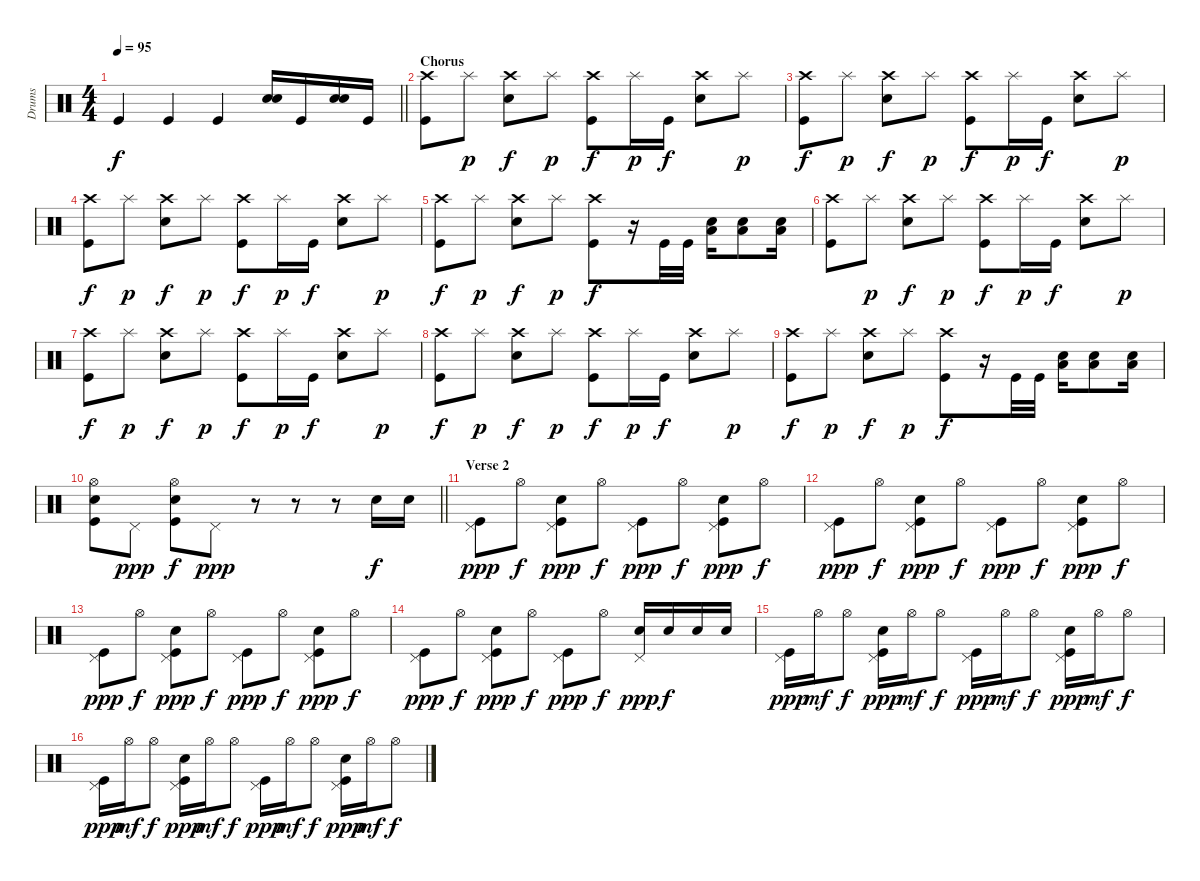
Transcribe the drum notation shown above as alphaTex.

\track ("Drums" "Drums") {instrument percussion}
\staff {score}
\articulation defaults
\ts (4 4)
\tempo 95
\clef neutral
\barLineRight lightlight
\ks c "Kick (hit)".4{dy f} "Kick (hit)".4 "Kick (hit)".4
("Snare (hit) 2" "Snare (hit) 2").16 "Kick (hit)".16 ("Snare (hit) 2" "Snare (hit) 2").16 "Kick (hit)".16 |
\section ("" "Chorus")
("Crash high (hit)" "Kick (hit)").8 "Splash (hit)".8{dy p} ("Crash high (hit)" "Snare (hit) 2").8{dy f} "Splash (hit)".8{dy p} ("Crash high (hit)" "Kick (hit)").8{dy f} "Splash (hit)".16{dy p} "Kick (hit)".16{dy f} ("Crash high (hit)" "Snare (hit) 2").8 "Splash (hit)".8{dy p} |
("Crash high (hit)" "Kick (hit)").8{dy f} "Splash (hit)".8{dy p} ("Crash high (hit)" "Snare (hit) 2").8{dy f} "Splash (hit)".8{dy p} ("Crash high (hit)" "Kick (hit)").8{dy f} "Splash (hit)".16{dy p} "Kick (hit)".16{dy f} ("Crash high (hit)" "Snare (hit) 2").8 "Splash (hit)".8{dy p} |
("Crash high (hit)" "Kick (hit)").8{dy f} "Splash (hit)".8{dy p} ("Crash high (hit)" "Snare (hit) 2").8{dy f} "Splash (hit)".8{dy p} ("Crash high (hit)" "Kick (hit)").8{dy f} "Splash (hit)".16{dy p} "Kick (hit)".16{dy f} ("Crash high (hit)" "Snare (hit) 2").8 "Splash (hit)".8{dy p} |
("Crash high (hit)" "Kick (hit)").8{dy f} "Splash (hit)".8{dy p} ("Crash high (hit)" "Snare (hit) 2").8{dy f} "Splash (hit)".8{dy p} ("Crash high (hit)" "Kick (hit)").8{dy f} r.16 "Kick (hit)".32 "Kick (hit)".32 ("Snare (hit) 2" "Low Floor Tom (hit)").16 ("Snare (hit) 2" "Low Floor Tom (hit)").8 ("Snare (hit) 2" "Low Floor Tom (hit)").16 |
("Crash high (hit)" "Kick (hit)").8 "Splash (hit)".8{dy p} ("Crash high (hit)" "Snare (hit) 2").8{dy f} "Splash (hit)".8{dy p} ("Crash high (hit)" "Kick (hit)").8{dy f} "Splash (hit)".16{dy p} "Kick (hit)".16{dy f} ("Crash high (hit)" "Snare (hit) 2").8 "Splash (hit)".8{dy p} |
("Crash high (hit)" "Kick (hit)").8{dy f} "Splash (hit)".8{dy p} ("Crash high (hit)" "Snare (hit) 2").8{dy f} "Splash (hit)".8{dy p} ("Crash high (hit)" "Kick (hit)").8{dy f} "Splash (hit)".16{dy p} "Kick (hit)".16{dy f} ("Crash high (hit)" "Snare (hit) 2").8 "Splash (hit)".8{dy p} |
("Crash high (hit)" "Kick (hit)").8{dy f} "Splash (hit)".8{dy p} ("Crash high (hit)" "Snare (hit) 2").8{dy f} "Splash (hit)".8{dy p} ("Crash high (hit)" "Kick (hit)").8{dy f} "Splash (hit)".16{dy p} "Kick (hit)".16{dy f} ("Crash high (hit)" "Snare (hit) 2").8 "Splash (hit)".8{dy p} |
("Crash high (hit)" "Kick (hit)").8{dy f} "Splash (hit)".8{dy p} ("Crash high (hit)" "Snare (hit) 2").8{dy f} "Splash (hit)".8{dy p} ("Crash high (hit)" "Kick (hit)").8{dy f} r.16 "Kick (hit)".32 "Kick (hit)".32 ("Snare (hit) 2" "Low Floor Tom (hit)").16 ("Snare (hit) 2" "Low Floor Tom (hit)").8 ("Snare (hit) 2" "Low Floor Tom (hit)").16 |
\barLineRight lightlight
("Hi-Hat (open)" "Snare (hit) 2" "Kick (hit)").8 "Pedal Hi-Hat (hit)".8{dy ppp} ("Hi-Hat (open)" "Snare (hit) 2" "Kick (hit)").8{dy f} "Pedal Hi-Hat (hit)".8{dy ppp} r.8 r.8 r.8 "Snare (hit) 2".16{dy f} "Snare (hit) 2".16 |
\section ("" "Verse 2")
("Pedal Hi-Hat (hit)" "Kick (hit)").8{dy ppp} "Hi-Hat (open)".8{dy f} ("Pedal Hi-Hat (hit)" "Snare (hit) 2" "Kick (hit)").8{dy ppp} "Hi-Hat (open)".8{dy f} ("Pedal Hi-Hat (hit)" "Kick (hit)").8{dy ppp} "Hi-Hat (open)".8{dy f} ("Pedal Hi-Hat (hit)" "Snare (hit) 2" "Kick (hit)").8{dy ppp} "Hi-Hat (open)".8{dy f} |
("Pedal Hi-Hat (hit)" "Kick (hit)").8{dy ppp} "Hi-Hat (open)".8{dy f} ("Pedal Hi-Hat (hit)" "Snare (hit) 2" "Kick (hit)").8{dy ppp} "Hi-Hat (open)".8{dy f} ("Pedal Hi-Hat (hit)" "Kick (hit)").8{dy ppp} "Hi-Hat (open)".8{dy f} ("Pedal Hi-Hat (hit)" "Snare (hit) 2" "Kick (hit)").8{dy ppp} "Hi-Hat (open)".8{dy f} |
("Pedal Hi-Hat (hit)" "Kick (hit)").8{dy ppp} "Hi-Hat (open)".8{dy f} ("Pedal Hi-Hat (hit)" "Snare (hit) 2" "Kick (hit)").8{dy ppp} "Hi-Hat (open)".8{dy f} ("Pedal Hi-Hat (hit)" "Kick (hit)").8{dy ppp} "Hi-Hat (open)".8{dy f} ("Pedal Hi-Hat (hit)" "Snare (hit) 2" "Kick (hit)").8{dy ppp} "Hi-Hat (open)".8{dy f} |
("Pedal Hi-Hat (hit)" "Kick (hit)").8{dy ppp} "Hi-Hat (open)".8{dy f} ("Pedal Hi-Hat (hit)" "Snare (hit) 2" "Kick (hit)").8{dy ppp} "Hi-Hat (open)".8{dy f} ("Pedal Hi-Hat (hit)" "Kick (hit)").8{dy ppp} "Hi-Hat (open)".8{dy f} ("Pedal Hi-Hat (hit)" "Snare (hit) 2").16{dy ppp} "Snare (hit) 2".16{dy f} "Snare (hit) 2".16 "Snare (hit) 2".16 |
("Pedal Hi-Hat (hit)" "Kick (hit)").16{dy ppp} "Hi-Hat (open)".16{dy mf} "Hi-Hat (open)".8{dy f} ("Pedal Hi-Hat (hit)" "Snare (hit) 2" "Kick (hit)").16{dy ppp} "Hi-Hat (open)".16{dy mf} "Hi-Hat (open)".8{dy f} ("Pedal Hi-Hat (hit)" "Kick (hit)").16{dy ppp} "Hi-Hat (open)".16{dy mf} "Hi-Hat (open)".8{dy f} ("Pedal Hi-Hat (hit)" "Snare (hit) 2" "Kick (hit)").16{dy ppp} "Hi-Hat (open)".16{dy mf} "Hi-Hat (open)".8{dy f} |
("Pedal Hi-Hat (hit)" "Kick (hit)").16{dy ppp} "Hi-Hat (open)".16{dy mf} "Hi-Hat (open)".8{dy f} ("Pedal Hi-Hat (hit)" "Snare (hit) 2" "Kick (hit)").16{dy ppp} "Hi-Hat (open)".16{dy mf} "Hi-Hat (open)".8{dy f} ("Pedal Hi-Hat (hit)" "Kick (hit)").16{dy ppp} "Hi-Hat (open)".16{dy mf} "Hi-Hat (open)".8{dy f} ("Pedal Hi-Hat (hit)" "Snare (hit) 2" "Kick (hit)").16{dy ppp} "Hi-Hat (open)".16{dy mf} "Hi-Hat (open)".8{dy f}
